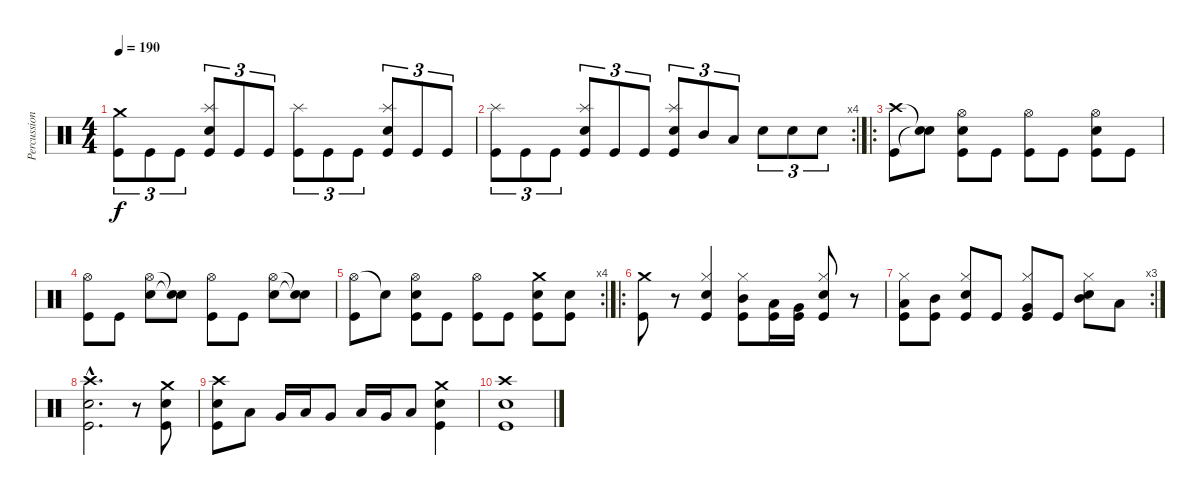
\track ("Percussion" "Percussion") {instrument percussion}
\staff {score}
\articulation defaults
\ts (4 4)
\tempo 190
\clef neutral
\ks c
("Crash medium (hit)" "Kick (hit)").8{tu (3 2) dy f} "Kick (hit)".8{tu (3 2)} "Kick (hit)".8{tu (3 2)} ("Splash (hit)" "Snare (hit) 2" "Kick (hit)").8{tu (3 2)} "Kick (hit)".8{tu (3 2)} "Kick (hit)".8{tu (3 2)} ("Splash (hit)" "Kick (hit)").8{tu (3 2)} "Kick (hit)".8{tu (3 2)} "Kick (hit)".8{tu (3 2)} ("Splash (hit)" "Snare (hit) 2" "Kick (hit)").8{tu (3 2)} "Kick (hit)".8{tu (3 2)} "Kick (hit)".8{tu (3 2)} |
\rc 4
("Splash (hit)" "Kick (hit)").8{tu (3 2)} "Kick (hit)".8{tu (3 2)} "Kick (hit)".8{tu (3 2)} ("Splash (hit)" "Snare (hit) 2" "Kick (hit)").8{tu (3 2)} "Kick (hit)".8{tu (3 2)} "Kick (hit)".8{tu (3 2)} ("Splash (hit)" "Snare (hit) 2" "Kick (hit)").8{tu (3 2)} "Mid Tom (hit)".8{tu (3 2)} "Low Tom (hit)".8{tu (3 2)} "Snare (hit) 2".8{tu (3 2)} "Snare (hit) 2".8{tu (3 2)} "Snare (hit) 2".8{tu (3 2)} |
\ro
("Crash high (hit)" "Kick (hit)").8 ("Snare (hit)"{t} "Snare (hit)"{t}).8 ("Hi-Hat (open)" "Snare (hit) 2" "Kick (hit)").8 "Kick (hit)".8 ("Hi-Hat (open)" "Kick (hit)").8 "Kick (hit)".8 ("Hi-Hat (open)" "Snare (hit) 2" "Kick (hit)").8 "Kick (hit)".8 |
("Hi-Hat (open)" "Kick (hit)").8 "Kick (hit)".8 ("Hi-Hat (open)" "Snare (hit) 2").8 ("Snare (hit)"{t} "Snare (hit)"{t}).8 ("Hi-Hat (open)" "Kick (hit)").8 "Kick (hit)".8 ("Hi-Hat (open)" "Snare (hit) 2").8 ("Snare (hit)"{t} "Snare (hit)"{t}).8 |
\rc 4
("Hi-Hat (open)" "Kick (hit)").8 "Snare (hit)"{t}.8 ("Hi-Hat (open)" "Snare (hit) 2" "Kick (hit)").8 "Kick (hit)".8 ("Hi-Hat (open)" "Kick (hit)").8 "Kick (hit)".8 ("Crash medium (hit)" "Snare (hit) 2" "Kick (hit)").8 ("Snare (hit) 2" "Kick (hit)").8 |
\ro
("Crash medium (hit)" "Kick (hit)").8 r.8 ("Hi-Hat (closed)" "Electric Snare (hit)" "Kick (hit)").4 ("Hi-Hat (closed)" "Mid Tom (hit)" "Kick (hit)").8 ("Low Tom (hit)" "Kick (hit)").16 ("Very Low Tom (hit)" "Kick (hit)").16 ("Hi-Hat (closed)" "Electric Snare (hit)" "Kick (hit)").8 r.8 |
\rc 3
("Hi-Hat (closed)" "Low Tom (hit)" "Kick (hit)").8 ("Mid Tom (hit)" "Kick (hit)").8 ("Hi-Hat (closed)" "Electric Snare (hit)" "Kick (hit)").8 "Kick (hit)".8 ("Hi-Hat (closed)" "Very Low Tom (hit)" "Kick (hit)").8 "Kick (hit)".8 ("Hi-Hat (closed)" "Electric Snare (hit)" "Mid Tom (hit)").8 "Low Tom (hit)".8 |
("Crash high (hit)"{hac} "Snare (hit) 2"{hac} "Kick (hit)"{hac}).2{d} r.8 ("Crash medium (hit)" "Snare (hit) 2" "Kick (hit)").8 |
("Crash high (hit)" "Snare (hit) 2" "Kick (hit)").8 "Low Tom (hit)".8 "Very Low Tom (hit)".16 "Low Floor Tom (hit)".16 "Very Low Tom (hit)".8 "Low Tom (hit)".16 "Very Low Tom (hit)".16 "Low Floor Tom (hit)".8 ("Crash medium (hit)" "Snare (hit) 2" "Kick (hit)").4 |
("Crash high (hit)" "Snare (hit) 2" "Kick (hit)").1
